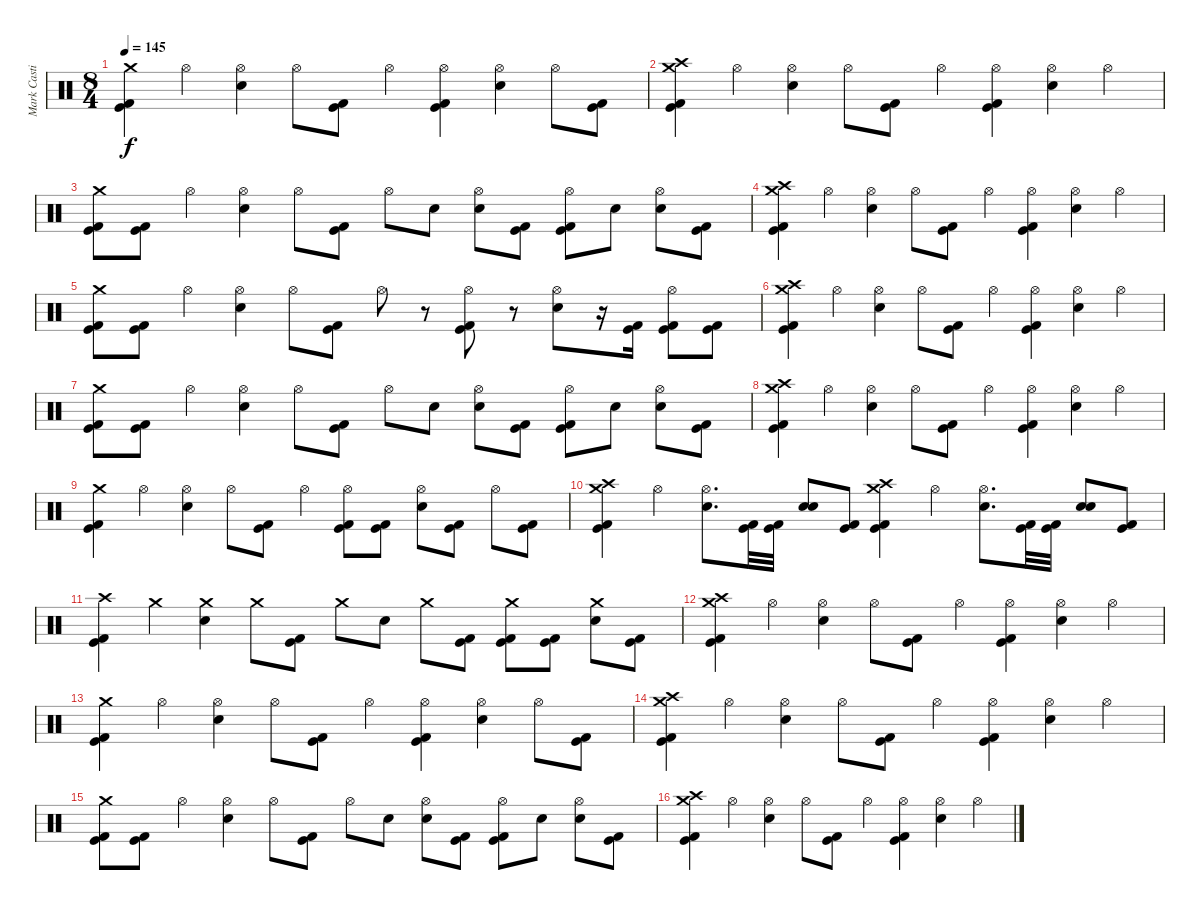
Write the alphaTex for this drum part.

\track ("Mark Castillo" "Mark Casti") {instrument percussion}
\staff {score}
\articulation defaults
\ts (8 4)
\tempo 145
\clef neutral
\ks c
("Crash medium (hit)" "Kick (hit)" "Kick (hit) 2").4{dy f} "Hi-Hat (open)".4 ("Hi-Hat (open)" "Electric Snare (hit)").4 "Hi-Hat (open)".8 ("Kick (hit)" "Kick (hit) 2").8 "Hi-Hat (open)".4 ("Hi-Hat (open)" "Kick (hit)" "Kick (hit) 2").4 ("Hi-Hat (open)" "Electric Snare (hit)").4 "Hi-Hat (open)".8 ("Kick (hit)" "Kick (hit) 2").8 |
("Crash medium (hit)" "Crash high (hit)" "Kick (hit)" "Kick (hit) 2").4 "Hi-Hat (open)".4 ("Hi-Hat (open)" "Electric Snare (hit)").4 "Hi-Hat (open)".8 ("Kick (hit)" "Kick (hit) 2").8 "Hi-Hat (open)".4 ("Hi-Hat (open)" "Kick (hit)" "Kick (hit) 2").4 ("Hi-Hat (open)" "Electric Snare (hit)").4 "Hi-Hat (open)".4 |
("Crash medium (hit)" "Kick (hit)" "Kick (hit) 2").8 ("Kick (hit)" "Kick (hit) 2").8 "Hi-Hat (open)".4 ("Hi-Hat (open)" "Electric Snare (hit)").4 "Hi-Hat (open)".8 ("Kick (hit)" "Kick (hit) 2").8 "Hi-Hat (open)".8 "Electric Snare (hit)".8 ("Hi-Hat (open)" "Electric Snare (hit)").8 ("Kick (hit)" "Kick (hit) 2").8 ("Hi-Hat (open)" "Kick (hit)" "Kick (hit) 2").8 "Electric Snare (hit)".8 ("Hi-Hat (open)" "Electric Snare (hit)").8 ("Kick (hit)" "Kick (hit) 2").8 |
("Crash medium (hit)" "Crash high (hit)" "Kick (hit)" "Kick (hit) 2").4 "Hi-Hat (open)".4 ("Hi-Hat (open)" "Electric Snare (hit)").4 "Hi-Hat (open)".8 ("Kick (hit)" "Kick (hit) 2").8 "Hi-Hat (open)".4 ("Hi-Hat (open)" "Kick (hit)" "Kick (hit) 2").4 ("Hi-Hat (open)" "Electric Snare (hit)").4 "Hi-Hat (open)".4 |
("Crash medium (hit)" "Kick (hit)" "Kick (hit) 2").8 ("Kick (hit)" "Kick (hit) 2").8 "Hi-Hat (open)".4 ("Hi-Hat (open)" "Electric Snare (hit)").4 "Hi-Hat (open)".8 ("Kick (hit)" "Kick (hit) 2").8 "Hi-Hat (open)".8 r.8 ("Hi-Hat (open)" "Kick (hit)" "Kick (hit) 2").8 r.8 ("Hi-Hat (open)" "Electric Snare (hit)").8 r.16 ("Kick (hit)" "Kick (hit) 2").16 ("Hi-Hat (open)" "Kick (hit)" "Kick (hit) 2").8 ("Kick (hit)" "Kick (hit) 2").8 |
("Crash medium (hit)" "Crash high (hit)" "Kick (hit)" "Kick (hit) 2").4 "Hi-Hat (open)".4 ("Hi-Hat (open)" "Electric Snare (hit)").4 "Hi-Hat (open)".8 ("Kick (hit)" "Kick (hit) 2").8 "Hi-Hat (open)".4 ("Hi-Hat (open)" "Kick (hit)" "Kick (hit) 2").4 ("Hi-Hat (open)" "Electric Snare (hit)").4 "Hi-Hat (open)".4 |
("Crash medium (hit)" "Kick (hit)" "Kick (hit) 2").8 ("Kick (hit)" "Kick (hit) 2").8 "Hi-Hat (open)".4 ("Hi-Hat (open)" "Electric Snare (hit)").4 "Hi-Hat (open)".8 ("Kick (hit)" "Kick (hit) 2").8 "Hi-Hat (open)".8 "Electric Snare (hit)".8 ("Hi-Hat (open)" "Electric Snare (hit)").8 ("Kick (hit)" "Kick (hit) 2").8 ("Hi-Hat (open)" "Kick (hit)" "Kick (hit) 2").8 "Electric Snare (hit)".8 ("Hi-Hat (open)" "Electric Snare (hit)").8 ("Kick (hit)" "Kick (hit) 2").8 |
("Crash medium (hit)" "Crash high (hit)" "Kick (hit)" "Kick (hit) 2").4 "Hi-Hat (open)".4 ("Hi-Hat (open)" "Electric Snare (hit)").4 "Hi-Hat (open)".8 ("Kick (hit)" "Kick (hit) 2").8 "Hi-Hat (open)".4 ("Hi-Hat (open)" "Kick (hit)" "Kick (hit) 2").4 ("Hi-Hat (open)" "Electric Snare (hit)").4 "Hi-Hat (open)".4 |
("Crash medium (hit)" "Kick (hit)" "Kick (hit) 2").4 "Hi-Hat (open)".4 ("Hi-Hat (open)" "Electric Snare (hit)").4 "Hi-Hat (open)".8 ("Kick (hit)" "Kick (hit) 2").8 "Hi-Hat (open)".4 ("Hi-Hat (open)" "Kick (hit)" "Kick (hit) 2").8 ("Kick (hit)" "Kick (hit) 2").8 ("Hi-Hat (open)" "Electric Snare (hit)").8 ("Kick (hit)" "Kick (hit) 2").8 "Hi-Hat (open)".8 ("Kick (hit)" "Kick (hit) 2").8 |
("Crash medium (hit)" "Crash high (hit)" "Kick (hit)" "Kick (hit) 2").4 "Hi-Hat (open)".4 ("Hi-Hat (open)" "Electric Snare (hit)").8{d} ("Kick (hit)" "Kick (hit) 2").32 ("Kick (hit)" "Kick (hit) 2").32 ("Electric Snare (hit)" "Electric Snare (hit)").8{bu 240} ("Kick (hit)" "Kick (hit) 2").8 ("Crash medium (hit)" "Crash high (hit)" "Kick (hit)" "Kick (hit) 2").4 "Hi-Hat (open)".4 ("Hi-Hat (open)" "Electric Snare (hit)").8{d} ("Kick (hit)" "Kick (hit) 2").32 ("Kick (hit)" "Kick (hit) 2").32 ("Electric Snare (hit)" "Electric Snare (hit)").8{bu 240} ("Kick (hit)" "Kick (hit) 2").8 |
("Crash high (hit)" "Kick (hit)" "Kick (hit) 2").4 "Crash medium (hit)".4 ("Crash medium (hit)" "Electric Snare (hit)").4 "Crash medium (hit)".8 ("Kick (hit)" "Kick (hit) 2").8 "Crash medium (hit)".8 "Electric Snare (hit)".8 "Crash medium (hit)".8 ("Kick (hit)" "Kick (hit) 2").8 ("Crash medium (hit)" "Kick (hit)" "Kick (hit) 2").8 ("Kick (hit)" "Kick (hit) 2").8 ("Crash medium (hit)" "Electric Snare (hit)").8 ("Kick (hit)" "Kick (hit) 2").8 |
("Crash medium (hit)" "Crash high (hit)" "Kick (hit)" "Kick (hit) 2").4 "Hi-Hat (open)".4 ("Hi-Hat (open)" "Electric Snare (hit)").4 "Hi-Hat (open)".8 ("Kick (hit)" "Kick (hit) 2").8 "Hi-Hat (open)".4 ("Hi-Hat (open)" "Kick (hit)" "Kick (hit) 2").4 ("Hi-Hat (open)" "Electric Snare (hit)").4 "Hi-Hat (open)".4 |
("Crash medium (hit)" "Kick (hit)" "Kick (hit) 2").4 "Hi-Hat (open)".4 ("Hi-Hat (open)" "Electric Snare (hit)").4 "Hi-Hat (open)".8 ("Kick (hit)" "Kick (hit) 2").8 "Hi-Hat (open)".4 ("Hi-Hat (open)" "Kick (hit)" "Kick (hit) 2").4 ("Hi-Hat (open)" "Electric Snare (hit)").4 "Hi-Hat (open)".8 ("Kick (hit)" "Kick (hit) 2").8 |
("Crash medium (hit)" "Crash high (hit)" "Kick (hit)" "Kick (hit) 2").4 "Hi-Hat (open)".4 ("Hi-Hat (open)" "Electric Snare (hit)").4 "Hi-Hat (open)".8 ("Kick (hit)" "Kick (hit) 2").8 "Hi-Hat (open)".4 ("Hi-Hat (open)" "Kick (hit)" "Kick (hit) 2").4 ("Hi-Hat (open)" "Electric Snare (hit)").4 "Hi-Hat (open)".4 |
("Crash medium (hit)" "Kick (hit)" "Kick (hit) 2").8 ("Kick (hit)" "Kick (hit) 2").8 "Hi-Hat (open)".4 ("Hi-Hat (open)" "Electric Snare (hit)").4 "Hi-Hat (open)".8 ("Kick (hit)" "Kick (hit) 2").8 "Hi-Hat (open)".8 "Electric Snare (hit)".8 ("Hi-Hat (open)" "Electric Snare (hit)").8 ("Kick (hit)" "Kick (hit) 2").8 ("Hi-Hat (open)" "Kick (hit)" "Kick (hit) 2").8 "Electric Snare (hit)".8 ("Hi-Hat (open)" "Electric Snare (hit)").8 ("Kick (hit)" "Kick (hit) 2").8 |
("Crash medium (hit)" "Crash high (hit)" "Kick (hit)" "Kick (hit) 2").4 "Hi-Hat (open)".4 ("Hi-Hat (open)" "Electric Snare (hit)").4 "Hi-Hat (open)".8 ("Kick (hit)" "Kick (hit) 2").8 "Hi-Hat (open)".4 ("Hi-Hat (open)" "Kick (hit)" "Kick (hit) 2").4 ("Hi-Hat (open)" "Electric Snare (hit)").4 "Hi-Hat (open)".4
